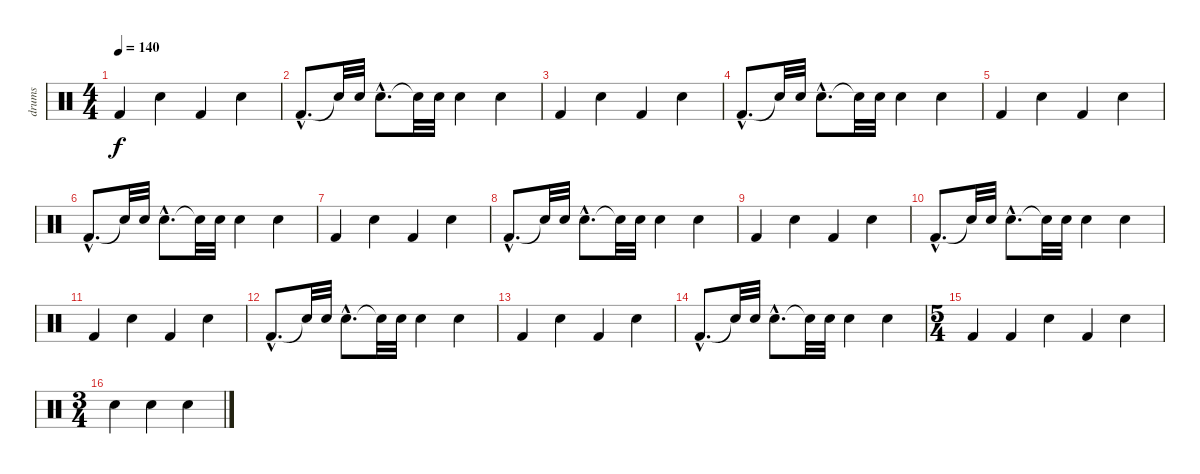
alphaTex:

\track ("drums" "drums") {instrument percussion}
\staff {score}
\articulation defaults
\ts (4 4)
\tempo 140
\clef neutral
\ks c "Kick (hit) 2".4{dy f} "Snare (hit) 2".4 "Kick (hit) 2".4 "Snare (hit) 2".4
|
"Kick (hit) 2"{hac}.8{d} "Snare (hit)"{t}.32 "Snare (hit) 2".32 "Snare (hit) 2"{hac}.8{d} "Snare (hit)"{t}.32 "Snare (hit) 2".32 "Snare (hit) 2".4 "Snare (hit) 2".4 |
"Kick (hit) 2".4 "Snare (hit) 2".4 "Kick (hit) 2".4 "Snare (hit) 2".4 |
"Kick (hit) 2"{hac}.8{d} "Snare (hit)"{t}.32 "Snare (hit) 2".32 "Snare (hit) 2"{hac}.8{d} "Snare (hit)"{t}.32 "Snare (hit) 2".32 "Snare (hit) 2".4 "Snare (hit) 2".4 |
"Kick (hit) 2".4 "Snare (hit) 2".4 "Kick (hit) 2".4 "Snare (hit) 2".4 |
"Kick (hit) 2"{hac}.8{d} "Snare (hit)"{t}.32 "Snare (hit) 2".32 "Snare (hit) 2"{hac}.8{d} "Snare (hit)"{t}.32 "Snare (hit) 2".32 "Snare (hit) 2".4 "Snare (hit) 2".4 |
"Kick (hit) 2".4 "Snare (hit) 2".4 "Kick (hit) 2".4 "Snare (hit) 2".4 |
"Kick (hit) 2"{hac}.8{d} "Snare (hit)"{t}.32 "Snare (hit) 2".32 "Snare (hit) 2"{hac}.8{d} "Snare (hit)"{t}.32 "Snare (hit) 2".32 "Snare (hit) 2".4 "Snare (hit) 2".4 |
"Kick (hit) 2".4 "Snare (hit) 2".4 "Kick (hit) 2".4 "Snare (hit) 2".4 |
"Kick (hit) 2"{hac}.8{d} "Snare (hit)"{t}.32 "Snare (hit) 2".32 "Snare (hit) 2"{hac}.8{d} "Snare (hit)"{t}.32 "Snare (hit) 2".32 "Snare (hit) 2".4 "Snare (hit) 2".4 |
"Kick (hit) 2".4 "Snare (hit) 2".4 "Kick (hit) 2".4 "Snare (hit) 2".4 |
"Kick (hit) 2"{hac}.8{d} "Snare (hit)"{t}.32 "Snare (hit) 2".32 "Snare (hit) 2"{hac}.8{d} "Snare (hit)"{t}.32 "Snare (hit) 2".32 "Snare (hit) 2".4 "Snare (hit) 2".4 |
"Kick (hit) 2".4 "Snare (hit) 2".4 "Kick (hit) 2".4 "Snare (hit) 2".4 |
"Kick (hit) 2"{hac}.8{d} "Snare (hit)"{t}.32 "Snare (hit) 2".32 "Snare (hit) 2"{hac}.8{d} "Snare (hit)"{t}.32 "Snare (hit) 2".32 "Snare (hit) 2".4 "Snare (hit) 2".4 |
\ts (5 4)
"Kick (hit) 2".4 "Kick (hit) 2".4 "Snare (hit) 2".4 "Kick (hit) 2".4 "Snare (hit) 2".4 |
\ts (3 4)
"Electric Snare (hit)".4 "Snare (hit) 2".4 "Electric Snare (hit)".4
